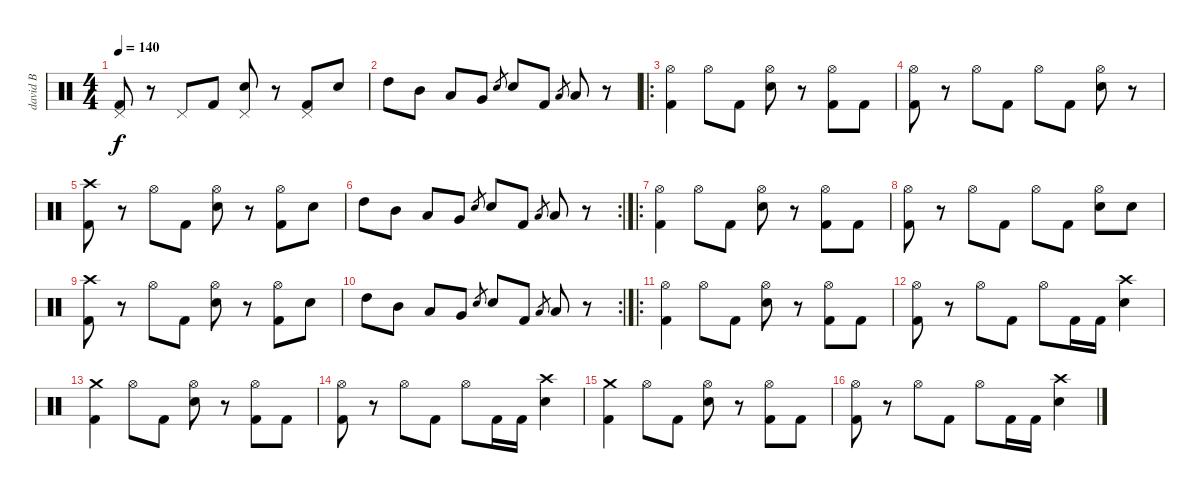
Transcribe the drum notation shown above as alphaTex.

\track ("david B" "david B") {instrument percussion}
\staff {score}
\articulation defaults
\ts (4 4)
\tempo 140
\clef neutral
\ks c
("Pedal Hi-Hat (hit)" "Kick (hit) 2").8{dy f} r.8 "Pedal Hi-Hat (hit)".8 "Kick (hit) 2".8 ("Pedal Hi-Hat (hit)" "Electric Snare (hit)").8 r.8 ("Pedal Hi-Hat (hit)" "Kick (hit) 2").8 "Electric Snare (hit)".8 |
"High Tom (hit)".8 "Mid Tom (hit)".8 "Low Tom (hit)".8 "Very Low Tom (hit)".8 "Electric Snare (hit)".8{gr} "Electric Snare (hit)".8 "Kick (hit) 2".8 "Low Tom (hit)".8{gr} "Low Tom (hit)".8 r.8 |
\ro
("Hi-Hat (open)" "Kick (hit) 2").4 "Hi-Hat (open)".8 "Kick (hit) 2".8 ("Hi-Hat (open)" "Electric Snare (hit)").8 r.8 ("Hi-Hat (open)" "Kick (hit) 2").8 "Kick (hit) 2".8 |
("Hi-Hat (open)" "Kick (hit) 2").8 r.8 "Hi-Hat (open)".8 "Kick (hit) 2".8 "Hi-Hat (open)".8 "Kick (hit) 2".8 ("Hi-Hat (open)" "Electric Snare (hit)").8 r.8 |
("Crash high (hit)" "Kick (hit) 2").8 r.8 "Hi-Hat (open)".8 "Kick (hit) 2".8 ("Hi-Hat (open)" "Electric Snare (hit)").8 r.8 ("Hi-Hat (open)" "Kick (hit) 2").8 "Electric Snare (hit)".8 |
\rc 2 "High Tom (hit)".8 "Mid Tom (hit)".8 "Low Tom (hit)".8 "Very Low Tom (hit)".8 "Electric Snare (hit)".8{gr} "Electric Snare (hit)".8 "Kick (hit) 2".8 "Low Tom (hit)".8{gr} "Low Tom (hit)".8
r.8 |
\ro
("Hi-Hat (open)" "Kick (hit) 2").4 "Hi-Hat (open)".8 "Kick (hit) 2".8 ("Hi-Hat (open)" "Electric Snare (hit)").8 r.8 ("Hi-Hat (open)" "Kick (hit) 2").8 "Kick (hit) 2".8 |
("Hi-Hat (open)" "Kick (hit) 2").8 r.8 "Hi-Hat (open)".8 "Kick (hit) 2".8 "Hi-Hat (open)".8 "Kick (hit) 2".8 ("Hi-Hat (open)" "Electric Snare (hit)").8 "Electric Snare (hit)".8 |
("Crash high (hit)" "Kick (hit) 2").8 r.8 "Hi-Hat (open)".8 "Kick (hit) 2".8 ("Hi-Hat (open)" "Electric Snare (hit)").8 r.8 ("Hi-Hat (open)" "Kick (hit) 2").8 "Electric Snare (hit)".8 |
\rc 2 "High Tom (hit)".8 "Mid Tom (hit)".8 "Low Tom (hit)".8 "Very Low Tom (hit)".8 "Electric Snare (hit)".8{gr} "Electric Snare (hit)".8 "Kick (hit) 2".8 "Low Tom (hit)".8{gr} "Low Tom (hit)".8
r.8 |
\ro
("Hi-Hat (open)" "Kick (hit) 2").4 "Hi-Hat (open)".8 "Kick (hit) 2".8 ("Hi-Hat (open)" "Electric Snare (hit)").8 r.8 ("Hi-Hat (open)" "Kick (hit) 2").8 "Kick (hit) 2".8 |
("Hi-Hat (open)" "Kick (hit) 2").8 r.8 "Hi-Hat (open)".8 "Kick (hit) 2".8 "Hi-Hat (open)".8 "Kick (hit) 2".16 "Kick (hit) 2".16 ("Crash high (hit)" "Electric Snare (hit)").4 |
("Crash medium (hit)" "Kick (hit) 2").4 "Hi-Hat (open)".8 "Kick (hit) 2".8 ("Hi-Hat (open)" "Electric Snare (hit)").8 r.8 ("Hi-Hat (open)" "Kick (hit) 2").8 "Kick (hit) 2".8 |
("Hi-Hat (open)" "Kick (hit) 2").8 r.8 "Hi-Hat (open)".8 "Kick (hit) 2".8 "Hi-Hat (open)".8 "Kick (hit) 2".16 "Kick (hit) 2".16 ("Crash high (hit)" "Electric Snare (hit)").4 |
("Crash medium (hit)" "Kick (hit) 2").4 "Hi-Hat (open)".8 "Kick (hit) 2".8 ("Hi-Hat (open)" "Electric Snare (hit)").8 r.8 ("Hi-Hat (open)" "Kick (hit) 2").8 "Kick (hit) 2".8 |
("Hi-Hat (open)" "Kick (hit) 2").8 r.8 "Hi-Hat (open)".8 "Kick (hit) 2".8 "Hi-Hat (open)".8 "Kick (hit) 2".16 "Kick (hit) 2".16 ("Crash high (hit)" "Electric Snare (hit)").4
